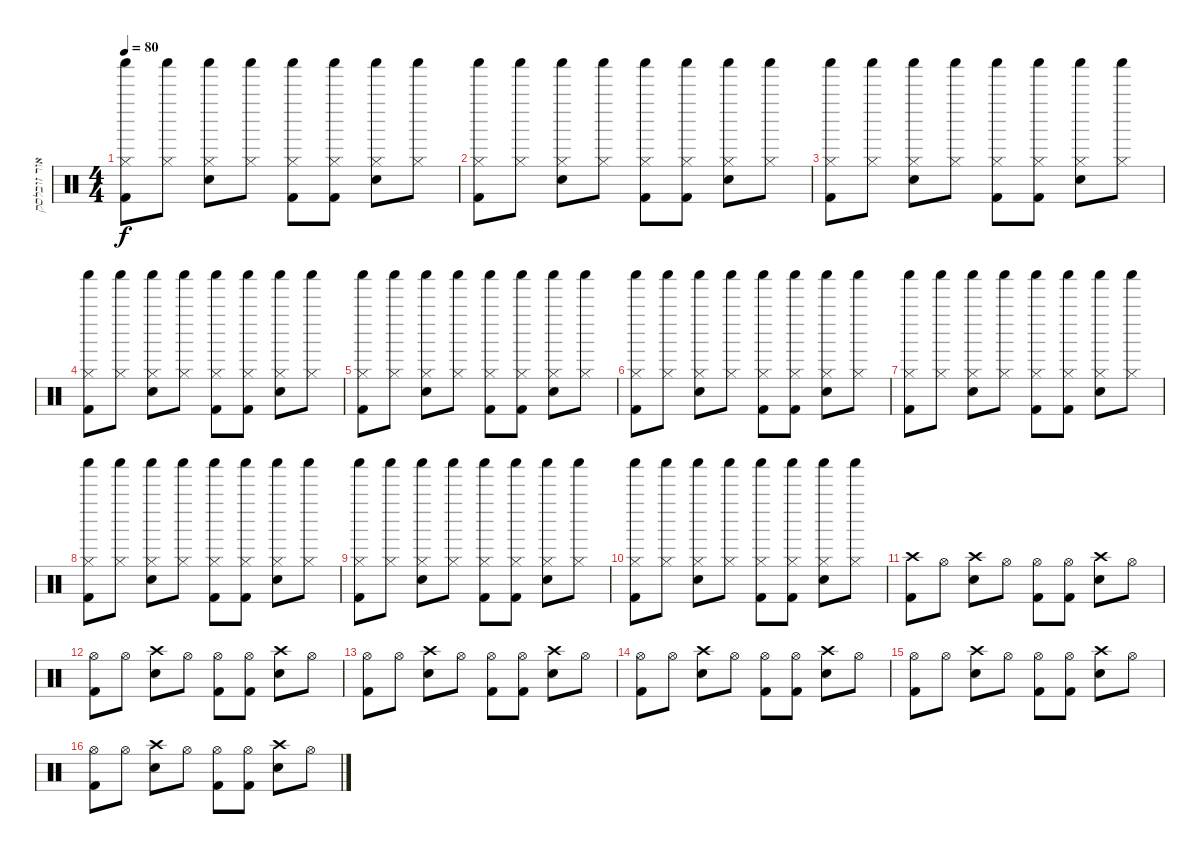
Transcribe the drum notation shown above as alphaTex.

\track ("אור זובלסקי" "אור זובלסק") {instrument percussion}
\staff {score}
\articulation defaults
\ts (4 4)
\tempo 80
\clef neutral
\ks c
("Hi-Hat (closed)" "Shaker (hit)" "Kick (hit) 2").8{dy f} ("Hi-Hat (closed)" "Shaker (hit)").8 ("Hi-Hat (closed)" "Shaker (hit)" "Electric Snare (hit)").8 ("Hi-Hat (closed)" "Shaker (hit)").8 ("Hi-Hat (closed)" "Shaker (hit)" "Kick (hit) 2").8 ("Hi-Hat (closed)" "Shaker (hit)" "Kick (hit) 2").8 ("Hi-Hat (closed)" "Shaker (hit)" "Electric Snare (hit)").8 ("Hi-Hat (closed)" "Shaker (hit)").8 |
("Hi-Hat (closed)" "Shaker (hit)" "Kick (hit) 2").8 ("Hi-Hat (closed)" "Shaker (hit)").8 ("Hi-Hat (closed)" "Shaker (hit)" "Electric Snare (hit)").8 ("Hi-Hat (closed)" "Shaker (hit)").8 ("Hi-Hat (closed)" "Shaker (hit)" "Kick (hit) 2").8 ("Hi-Hat (closed)" "Shaker (hit)" "Kick (hit) 2").8 ("Hi-Hat (closed)" "Shaker (hit)" "Electric Snare (hit)").8 ("Hi-Hat (closed)" "Shaker (hit)").8 |
("Hi-Hat (closed)" "Shaker (hit)" "Kick (hit) 2").8 ("Hi-Hat (closed)" "Shaker (hit)").8 ("Hi-Hat (closed)" "Shaker (hit)" "Electric Snare (hit)").8 ("Hi-Hat (closed)" "Shaker (hit)").8 ("Hi-Hat (closed)" "Shaker (hit)" "Kick (hit) 2").8 ("Hi-Hat (closed)" "Shaker (hit)" "Kick (hit) 2").8 ("Hi-Hat (closed)" "Shaker (hit)" "Electric Snare (hit)").8 ("Hi-Hat (closed)" "Shaker (hit)").8 |
("Hi-Hat (closed)" "Shaker (hit)" "Kick (hit) 2").8 ("Hi-Hat (closed)" "Shaker (hit)").8 ("Hi-Hat (closed)" "Shaker (hit)" "Electric Snare (hit)").8 ("Hi-Hat (closed)" "Shaker (hit)").8 ("Hi-Hat (closed)" "Shaker (hit)" "Kick (hit) 2").8 ("Hi-Hat (closed)" "Shaker (hit)" "Kick (hit) 2").8 ("Hi-Hat (closed)" "Shaker (hit)" "Electric Snare (hit)").8 ("Hi-Hat (closed)" "Shaker (hit)").8 |
("Hi-Hat (closed)" "Shaker (hit)" "Kick (hit) 2").8 ("Hi-Hat (closed)" "Shaker (hit)").8 ("Hi-Hat (closed)" "Shaker (hit)" "Electric Snare (hit)").8 ("Hi-Hat (closed)" "Shaker (hit)").8 ("Hi-Hat (closed)" "Shaker (hit)" "Kick (hit) 2").8 ("Hi-Hat (closed)" "Shaker (hit)" "Kick (hit) 2").8 ("Hi-Hat (closed)" "Shaker (hit)" "Electric Snare (hit)").8 ("Hi-Hat (closed)" "Shaker (hit)").8 |
("Hi-Hat (closed)" "Shaker (hit)" "Kick (hit) 2").8 ("Hi-Hat (closed)" "Shaker (hit)").8 ("Hi-Hat (closed)" "Shaker (hit)" "Electric Snare (hit)").8 ("Hi-Hat (closed)" "Shaker (hit)").8 ("Hi-Hat (closed)" "Shaker (hit)" "Kick (hit) 2").8 ("Hi-Hat (closed)" "Shaker (hit)" "Kick (hit) 2").8 ("Hi-Hat (closed)" "Shaker (hit)" "Electric Snare (hit)").8 ("Hi-Hat (closed)" "Shaker (hit)").8 |
("Hi-Hat (closed)" "Shaker (hit)" "Kick (hit) 2").8 ("Hi-Hat (closed)" "Shaker (hit)").8 ("Hi-Hat (closed)" "Shaker (hit)" "Electric Snare (hit)").8 ("Hi-Hat (closed)" "Shaker (hit)").8 ("Hi-Hat (closed)" "Shaker (hit)" "Kick (hit) 2").8 ("Hi-Hat (closed)" "Shaker (hit)" "Kick (hit) 2").8 ("Hi-Hat (closed)" "Shaker (hit)" "Electric Snare (hit)").8 ("Hi-Hat (closed)" "Shaker (hit)").8 |
("Hi-Hat (closed)" "Shaker (hit)" "Kick (hit) 2").8 ("Hi-Hat (closed)" "Shaker (hit)").8 ("Hi-Hat (closed)" "Shaker (hit)" "Electric Snare (hit)").8 ("Hi-Hat (closed)" "Shaker (hit)").8 ("Hi-Hat (closed)" "Shaker (hit)" "Kick (hit) 2").8 ("Hi-Hat (closed)" "Shaker (hit)" "Kick (hit) 2").8 ("Hi-Hat (closed)" "Shaker (hit)" "Electric Snare (hit)").8 ("Hi-Hat (closed)" "Shaker (hit)").8 |
("Hi-Hat (closed)" "Shaker (hit)" "Kick (hit) 2").8 ("Hi-Hat (closed)" "Shaker (hit)").8 ("Hi-Hat (closed)" "Shaker (hit)" "Electric Snare (hit)").8 ("Hi-Hat (closed)" "Shaker (hit)").8 ("Hi-Hat (closed)" "Shaker (hit)" "Kick (hit) 2").8 ("Hi-Hat (closed)" "Shaker (hit)" "Kick (hit) 2").8 ("Hi-Hat (closed)" "Shaker (hit)" "Electric Snare (hit)").8 ("Hi-Hat (closed)" "Shaker (hit)").8 |
("Hi-Hat (closed)" "Shaker (hit)" "Kick (hit) 2").8 ("Hi-Hat (closed)" "Shaker (hit)").8 ("Hi-Hat (closed)" "Shaker (hit)" "Electric Snare (hit)").8 ("Hi-Hat (closed)" "Shaker (hit)").8 ("Hi-Hat (closed)" "Shaker (hit)" "Kick (hit) 2").8 ("Hi-Hat (closed)" "Shaker (hit)" "Kick (hit) 2").8 ("Hi-Hat (closed)" "Shaker (hit)" "Electric Snare (hit)").8 ("Hi-Hat (closed)" "Shaker (hit)").8 |
("Crash high (hit)" "Kick (hit) 2").8 "Hi-Hat (open)".8 ("Crash high (hit)" "Electric Snare (hit)").8 "Hi-Hat (open)".8 ("Hi-Hat (open)" "Kick (hit) 2").8 ("Hi-Hat (open)" "Kick (hit) 2").8 ("Crash high (hit)" "Electric Snare (hit)").8 "Hi-Hat (open)".8 |
("Hi-Hat (open)" "Kick (hit) 2").8 "Hi-Hat (open)".8 ("Crash high (hit)" "Electric Snare (hit)").8 "Hi-Hat (open)".8 ("Hi-Hat (open)" "Kick (hit) 2").8 ("Hi-Hat (open)" "Kick (hit) 2").8 ("Crash high (hit)" "Electric Snare (hit)").8 "Hi-Hat (open)".8 |
("Hi-Hat (open)" "Kick (hit) 2").8 "Hi-Hat (open)".8 ("Crash high (hit)" "Electric Snare (hit)").8 "Hi-Hat (open)".8 ("Hi-Hat (open)" "Kick (hit) 2").8 ("Hi-Hat (open)" "Kick (hit) 2").8 ("Crash high (hit)" "Electric Snare (hit)").8 "Hi-Hat (open)".8 |
("Hi-Hat (open)" "Kick (hit) 2").8 "Hi-Hat (open)".8 ("Crash high (hit)" "Electric Snare (hit)").8 "Hi-Hat (open)".8 ("Hi-Hat (open)" "Kick (hit) 2").8 ("Hi-Hat (open)" "Kick (hit) 2").8 ("Crash high (hit)" "Electric Snare (hit)").8 "Hi-Hat (open)".8 |
("Hi-Hat (open)" "Kick (hit) 2").8 "Hi-Hat (open)".8 ("Crash high (hit)" "Electric Snare (hit)").8 "Hi-Hat (open)".8 ("Hi-Hat (open)" "Kick (hit) 2").8 ("Hi-Hat (open)" "Kick (hit) 2").8 ("Crash high (hit)" "Electric Snare (hit)").8 "Hi-Hat (open)".8 |
("Hi-Hat (open)" "Kick (hit) 2").8 "Hi-Hat (open)".8 ("Crash high (hit)" "Electric Snare (hit)").8 "Hi-Hat (open)".8 ("Hi-Hat (open)" "Kick (hit) 2").8 ("Hi-Hat (open)" "Kick (hit) 2").8 ("Crash high (hit)" "Electric Snare (hit)").8 "Hi-Hat (open)".8
